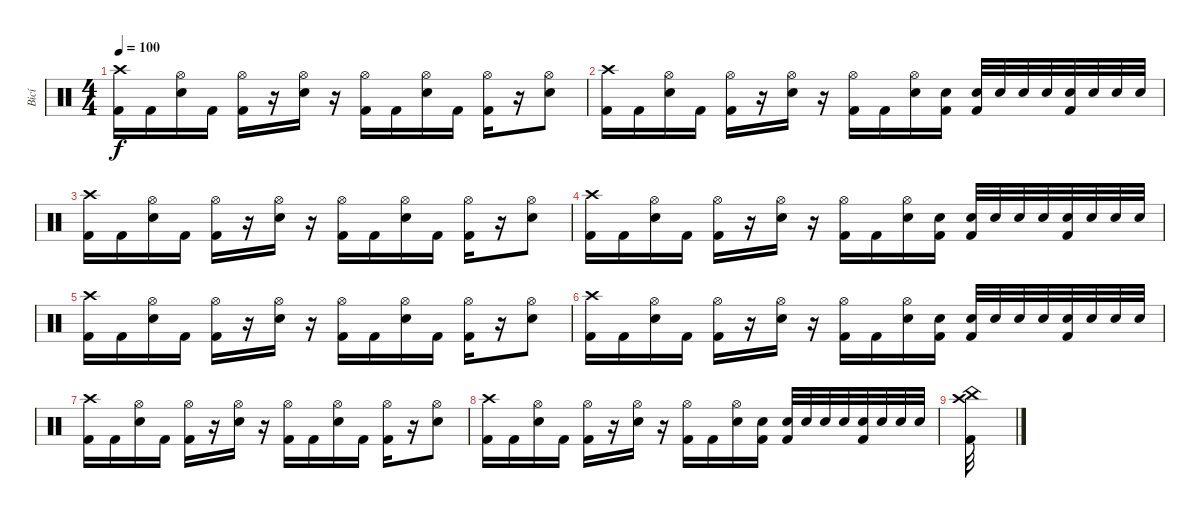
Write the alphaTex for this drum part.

\track ("Bicí" "Bicí") {instrument percussion}
\staff {score}
\articulation defaults
\ts (4 4)
\tempo 100
\clef neutral
\ks c
("Kick (hit) 2" "Crash high (hit)").16{dy f} "Kick (hit) 2".16 ("Hi-Hat (open)" "Snare (hit) 2").16 "Kick (hit) 2".16 ("Kick (hit) 2" "Hi-Hat (open)").16 r.16 ("Hi-Hat (open)" "Snare (hit) 2").16 r.16 ("Kick (hit) 2" "Hi-Hat (open)").16 "Kick (hit) 2".16 ("Hi-Hat (open)" "Snare (hit) 2").16 "Kick (hit) 2".16 ("Kick (hit) 2" "Hi-Hat (open)").16 r.16 ("Hi-Hat (open)" "Snare (hit) 2").8 |
("Kick (hit) 2" "Crash high (hit)").16 "Kick (hit) 2".16 ("Hi-Hat (open)" "Snare (hit) 2").16 "Kick (hit) 2".16 ("Kick (hit) 2" "Hi-Hat (open)").16 r.16 ("Hi-Hat (open)" "Snare (hit) 2").16 r.16 ("Kick (hit) 2" "Hi-Hat (open)").16 "Kick (hit) 2".16 ("Hi-Hat (open)" "Snare (hit) 2").16 ("Kick (hit) 2" "Snare (hit) 2").16 ("Kick (hit) 2" "Snare (hit) 2").32 "Snare (hit) 2".32 "Snare (hit) 2".32 "Snare (hit) 2".32 ("Kick (hit) 2" "Snare (hit) 2").32 "Snare (hit) 2".32 "Snare (hit) 2".32 "Snare (hit) 2".32 |
("Kick (hit) 2" "Crash high (hit)").16 "Kick (hit) 2".16 ("Hi-Hat (open)" "Snare (hit) 2").16 "Kick (hit) 2".16 ("Kick (hit) 2" "Hi-Hat (open)").16 r.16 ("Hi-Hat (open)" "Snare (hit) 2").16 r.16 ("Kick (hit) 2" "Hi-Hat (open)").16 "Kick (hit) 2".16 ("Hi-Hat (open)" "Snare (hit) 2").16 "Kick (hit) 2".16 ("Kick (hit) 2" "Hi-Hat (open)").16 r.16 ("Hi-Hat (open)" "Snare (hit) 2").8 |
("Kick (hit) 2" "Crash high (hit)").16 "Kick (hit) 2".16 ("Hi-Hat (open)" "Snare (hit) 2").16 "Kick (hit) 2".16 ("Kick (hit) 2" "Hi-Hat (open)").16 r.16 ("Hi-Hat (open)" "Snare (hit) 2").16 r.16 ("Kick (hit) 2" "Hi-Hat (open)").16 "Kick (hit) 2".16 ("Hi-Hat (open)" "Snare (hit) 2").16 ("Kick (hit) 2" "Snare (hit) 2").16 ("Kick (hit) 2" "Snare (hit) 2").32 "Snare (hit) 2".32 "Snare (hit) 2".32 "Snare (hit) 2".32 ("Kick (hit) 2" "Snare (hit) 2").32 "Snare (hit) 2".32 "Snare (hit) 2".32 "Snare (hit) 2".32 |
("Kick (hit) 2" "Crash high (hit)").16 "Kick (hit) 2".16 ("Hi-Hat (open)" "Snare (hit) 2").16 "Kick (hit) 2".16 ("Kick (hit) 2" "Hi-Hat (open)").16 r.16 ("Hi-Hat (open)" "Snare (hit) 2").16 r.16 ("Kick (hit) 2" "Hi-Hat (open)").16 "Kick (hit) 2".16 ("Hi-Hat (open)" "Snare (hit) 2").16 "Kick (hit) 2".16 ("Kick (hit) 2" "Hi-Hat (open)").16 r.16 ("Hi-Hat (open)" "Snare (hit) 2").8 |
("Kick (hit) 2" "Crash high (hit)").16 "Kick (hit) 2".16 ("Hi-Hat (open)" "Snare (hit) 2").16 "Kick (hit) 2".16 ("Kick (hit) 2" "Hi-Hat (open)").16 r.16 ("Hi-Hat (open)" "Snare (hit) 2").16 r.16 ("Kick (hit) 2" "Hi-Hat (open)").16 "Kick (hit) 2".16 ("Hi-Hat (open)" "Snare (hit) 2").16 ("Kick (hit) 2" "Snare (hit) 2").16 ("Kick (hit) 2" "Snare (hit) 2").32 "Snare (hit) 2".32 "Snare (hit) 2".32 "Snare (hit) 2".32 ("Kick (hit) 2" "Snare (hit) 2").32 "Snare (hit) 2".32 "Snare (hit) 2".32 "Snare (hit) 2".32 |
("Kick (hit) 2" "Crash high (hit)").16 "Kick (hit) 2".16 ("Hi-Hat (open)" "Snare (hit) 2").16 "Kick (hit) 2".16 ("Kick (hit) 2" "Hi-Hat (open)").16 r.16 ("Hi-Hat (open)" "Snare (hit) 2").16 r.16 ("Kick (hit) 2" "Hi-Hat (open)").16 "Kick (hit) 2".16 ("Hi-Hat (open)" "Snare (hit) 2").16 "Kick (hit) 2".16 ("Kick (hit) 2" "Hi-Hat (open)").16 r.16 ("Hi-Hat (open)" "Snare (hit) 2").8 |
("Kick (hit) 2" "Crash high (hit)").16 "Kick (hit) 2".16 ("Hi-Hat (open)" "Snare (hit) 2").16 "Kick (hit) 2".16 ("Kick (hit) 2" "Hi-Hat (open)").16 r.16 ("Hi-Hat (open)" "Snare (hit) 2").16 r.16 ("Kick (hit) 2" "Hi-Hat (open)").16 "Kick (hit) 2".16 ("Hi-Hat (open)" "Snare (hit) 2").16 ("Kick (hit) 2" "Snare (hit) 2").16 ("Kick (hit) 2" "Snare (hit) 2").32 "Snare (hit) 2".32 "Snare (hit) 2".32 "Snare (hit) 2".32 ("Kick (hit) 2" "Snare (hit) 2").32 "Snare (hit) 2".32 "Snare (hit) 2".32 "Snare (hit) 2".32 |
("China (hit)" "Kick (hit) 2" "Crash high (hit)").32
